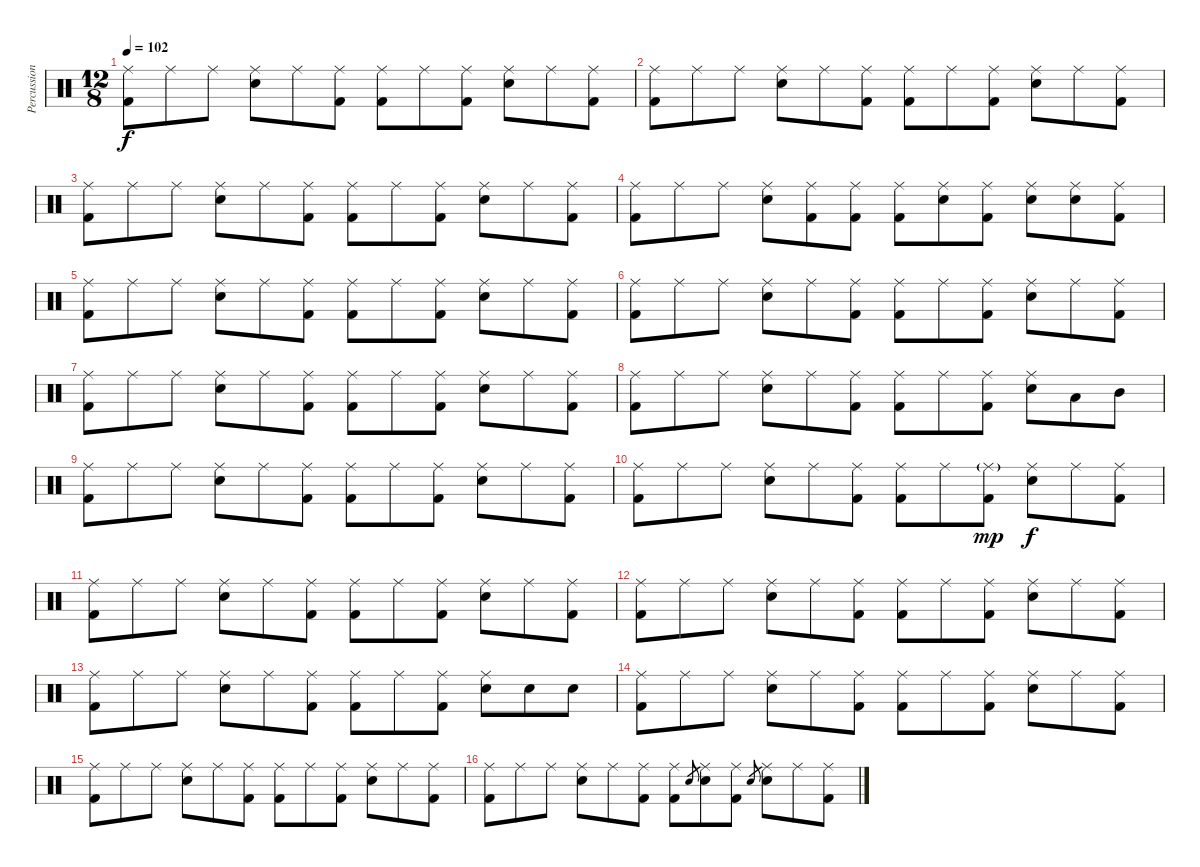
\track ("Percussion" "Percussion") {instrument percussion}
\staff {score}
\articulation defaults
\ts (12 8)
\tempo 102
\clef neutral
\ks c
("Ride (middle)" "Kick (hit) 2").8{dy f} "Ride (middle)".8 "Ride (middle)".8 ("Ride (middle)" "Electric Snare (hit)").8 "Ride (middle)".8 ("Ride (middle)" "Kick (hit) 2").8 ("Ride (middle)" "Kick (hit) 2").8 "Ride (middle)".8 ("Ride (middle)" "Kick (hit) 2").8 ("Ride (middle)" "Electric Snare (hit)").8 "Ride (middle)".8 ("Ride (middle)" "Kick (hit) 2").8 |
("Ride (middle)" "Kick (hit) 2").8 "Ride (middle)".8 "Ride (middle)".8 ("Ride (middle)" "Electric Snare (hit)").8 "Ride (middle)".8 ("Ride (middle)" "Kick (hit) 2").8 ("Ride (middle)" "Kick (hit) 2").8 "Ride (middle)".8 ("Ride (middle)" "Kick (hit) 2").8 ("Ride (middle)" "Electric Snare (hit)").8 "Ride (middle)".8 ("Ride (middle)" "Kick (hit) 2").8 |
("Ride (middle)" "Kick (hit) 2").8 "Ride (middle)".8 "Ride (middle)".8 ("Ride (middle)" "Electric Snare (hit)").8 "Ride (middle)".8 ("Ride (middle)" "Kick (hit) 2").8 ("Ride (middle)" "Kick (hit) 2").8 "Ride (middle)".8 ("Ride (middle)" "Kick (hit) 2").8 ("Ride (middle)" "Electric Snare (hit)").8 "Ride (middle)".8 ("Ride (middle)" "Kick (hit) 2").8 |
("Ride (middle)" "Kick (hit) 2").8 "Ride (middle)".8 "Ride (middle)".8 ("Ride (middle)" "Electric Snare (hit)").8 ("Ride (middle)" "Kick (hit) 2").8 ("Ride (middle)" "Kick (hit) 2").8 ("Ride (middle)" "Kick (hit) 2").8 ("Ride (middle)" "Electric Snare (hit)").8 ("Ride (middle)" "Kick (hit) 2").8 ("Ride (middle)" "Electric Snare (hit)").8 ("Ride (middle)" "Electric Snare (hit)").8 ("Ride (middle)" "Kick (hit) 2").8 |
("Ride (middle)" "Kick (hit) 2").8 "Ride (middle)".8 "Ride (middle)".8 ("Ride (middle)" "Electric Snare (hit)").8 "Ride (middle)".8 ("Ride (middle)" "Kick (hit) 2").8 ("Ride (middle)" "Kick (hit) 2").8 "Ride (middle)".8 ("Ride (middle)" "Kick (hit) 2").8 ("Ride (middle)" "Electric Snare (hit)").8 "Ride (middle)".8 ("Ride (middle)" "Kick (hit) 2").8 |
("Ride (middle)" "Kick (hit) 2").8 "Ride (middle)".8 "Ride (middle)".8 ("Ride (middle)" "Electric Snare (hit)").8 "Ride (middle)".8 ("Ride (middle)" "Kick (hit) 2").8 ("Ride (middle)" "Kick (hit) 2").8 "Ride (middle)".8 ("Ride (middle)" "Kick (hit) 2").8 ("Ride (middle)" "Electric Snare (hit)").8 "Ride (middle)".8 ("Ride (middle)" "Kick (hit) 2").8 |
("Ride (middle)" "Kick (hit) 2").8 "Ride (middle)".8 "Ride (middle)".8 ("Ride (middle)" "Electric Snare (hit)").8 "Ride (middle)".8 ("Ride (middle)" "Kick (hit) 2").8 ("Ride (middle)" "Kick (hit) 2").8 "Ride (middle)".8 ("Ride (middle)" "Kick (hit) 2").8 ("Ride (middle)" "Electric Snare (hit)").8 "Ride (middle)".8 ("Ride (middle)" "Kick (hit) 2").8 |
("Ride (middle)" "Kick (hit) 2").8 "Ride (middle)".8 "Ride (middle)".8 ("Ride (middle)" "Electric Snare (hit)").8 "Ride (middle)".8 ("Ride (middle)" "Kick (hit) 2").8 ("Ride (middle)" "Kick (hit) 2").8 "Ride (middle)".8 ("Ride (middle)" "Kick (hit) 2").8 ("Ride (middle)" "Electric Snare (hit)").8 "Low Tom (hit)".8 "Mid Tom (hit)".8 |
("Ride (middle)" "Kick (hit) 2").8 "Ride (middle)".8 "Ride (middle)".8 ("Ride (middle)" "Electric Snare (hit)").8 "Ride (middle)".8 ("Ride (middle)" "Kick (hit) 2").8 ("Ride (middle)" "Kick (hit) 2").8 "Ride (middle)".8 ("Ride (middle)" "Kick (hit) 2").8 ("Ride (middle)" "Electric Snare (hit)").8 "Ride (middle)".8 ("Ride (middle)" "Kick (hit) 2").8 |
("Ride (middle)" "Kick (hit) 2").8 "Ride (middle)".8 "Ride (middle)".8 ("Ride (middle)" "Electric Snare (hit)").8 "Ride (middle)".8 ("Ride (middle)" "Kick (hit) 2").8 ("Ride (middle)" "Kick (hit) 2").8 "Ride (middle)".8 ("Ride (middle)"{g} "Kick (hit) 2").8{dy mp} ("Ride (middle)" "Electric Snare (hit)").8{dy f} "Ride (middle)".8 ("Ride (middle)" "Kick (hit) 2").8 |
("Ride (middle)" "Kick (hit) 2").8 "Ride (middle)".8 "Ride (middle)".8 ("Ride (middle)" "Electric Snare (hit)").8 "Ride (middle)".8 ("Ride (middle)" "Kick (hit) 2").8 ("Ride (middle)" "Kick (hit) 2").8 "Ride (middle)".8 ("Ride (middle)" "Kick (hit) 2").8 ("Ride (middle)" "Electric Snare (hit)").8 "Ride (middle)".8 ("Ride (middle)" "Kick (hit) 2").8 |
("Ride (middle)" "Kick (hit) 2").8 "Ride (middle)".8 "Ride (middle)".8 ("Ride (middle)" "Electric Snare (hit)").8 "Ride (middle)".8 ("Ride (middle)" "Kick (hit) 2").8 ("Ride (middle)" "Kick (hit) 2").8 "Ride (middle)".8 ("Ride (middle)" "Kick (hit) 2").8 ("Ride (middle)" "Electric Snare (hit)").8 "Ride (middle)".8 ("Ride (middle)" "Kick (hit) 2").8 |
("Ride (middle)" "Kick (hit) 2").8 "Ride (middle)".8 "Ride (middle)".8 ("Ride (middle)" "Electric Snare (hit)").8 "Ride (middle)".8 ("Ride (middle)" "Kick (hit) 2").8 ("Ride (middle)" "Kick (hit) 2").8 "Ride (middle)".8 ("Ride (middle)" "Kick (hit) 2").8 ("Ride (middle)" "Electric Snare (hit)").8 "Electric Snare (hit)".8 "Electric Snare (hit)".8 |
("Ride (middle)" "Kick (hit) 2").8 "Ride (middle)".8 "Ride (middle)".8 ("Ride (middle)" "Electric Snare (hit)").8 "Ride (middle)".8 ("Ride (middle)" "Kick (hit) 2").8 ("Ride (middle)" "Kick (hit) 2").8 "Ride (middle)".8 ("Ride (middle)" "Kick (hit) 2").8 ("Ride (middle)" "Electric Snare (hit)").8 "Ride (middle)".8 ("Ride (middle)" "Kick (hit) 2").8 |
("Ride (middle)" "Kick (hit) 2").8 "Ride (middle)".8 "Ride (middle)".8 ("Ride (middle)" "Electric Snare (hit)").8 "Ride (middle)".8 ("Ride (middle)" "Kick (hit) 2").8 ("Ride (middle)" "Kick (hit) 2").8 "Ride (middle)".8 ("Ride (middle)" "Kick (hit) 2").8 ("Ride (middle)" "Electric Snare (hit)").8 "Ride (middle)".8 ("Ride (middle)" "Kick (hit) 2").8 |
("Ride (middle)" "Kick (hit) 2").8 "Ride (middle)".8 "Ride (middle)".8 ("Ride (middle)" "Electric Snare (hit)").8 "Ride (middle)".8 ("Ride (middle)" "Kick (hit) 2").8 ("Ride (middle)" "Kick (hit) 2").8 "Electric Snare (hit)".8{gr} ("Ride (middle)" "Electric Snare (hit)").8 ("Ride (middle)" "Kick (hit) 2").8 "Electric Snare (hit)".8{gr} ("Ride (middle)" "Electric Snare (hit)").8 "Ride (middle)".8 ("Ride (middle)" "Kick (hit) 2").8
